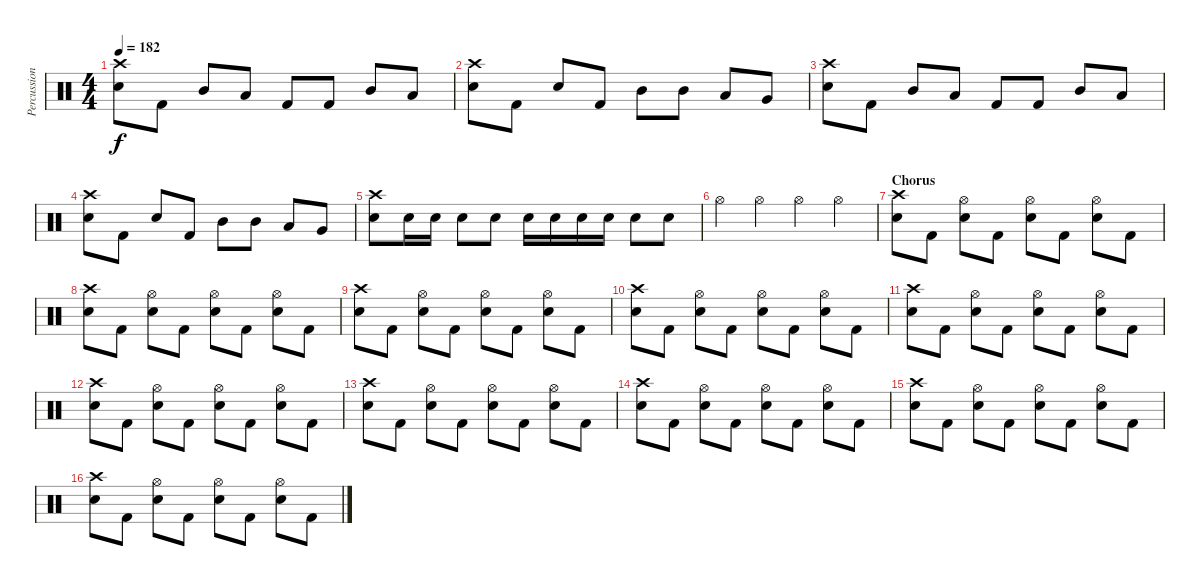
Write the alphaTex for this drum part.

\track ("Percussion" "Percussion") {instrument percussion}
\staff {score}
\articulation defaults
\ts (4 4)
\tempo 182
\clef neutral
\ks c
("Crash high (hit)" "Snare (hit) 2").8{dy f} "Kick (hit) 2".8 "Mid Tom (hit)".8 "Low Tom (hit)".8 "Kick (hit) 2".8 "Kick (hit) 2".8 "Mid Tom (hit)".8 "Low Tom (hit)".8 |
("Crash high (hit)" "Snare (hit) 2").8 "Kick (hit) 2".8 "Snare (hit) 2".8 "Kick (hit) 2".8 "Mid Tom (hit)".8 "Mid Tom (hit)".8 "Low Tom (hit)".8 "Very Low Tom (hit)".8 |
("Crash high (hit)" "Snare (hit) 2").8 "Kick (hit) 2".8 "Mid Tom (hit)".8 "Low Tom (hit)".8 "Kick (hit) 2".8 "Kick (hit) 2".8 "Mid Tom (hit)".8 "Low Tom (hit)".8 |
("Crash high (hit)" "Snare (hit) 2").8 "Kick (hit) 2".8 "Snare (hit) 2".8 "Kick (hit) 2".8 "Mid Tom (hit)".8 "Mid Tom (hit)".8 "Low Tom (hit)".8 "Very Low Tom (hit)".8 |
("Crash high (hit)" "Snare (hit) 2").8 "Snare (hit) 2".16 "Snare (hit) 2".16 "Snare (hit) 2".8 "Snare (hit) 2".8 "Snare (hit) 2".16 "Snare (hit) 2".16 "Snare (hit) 2".16 "Snare (hit) 2".16 "Snare (hit) 2".8 "Snare (hit) 2".8 |
"Hi-Hat (open)".4 "Hi-Hat (open)".4 "Hi-Hat (open)".4 "Hi-Hat (open)".4 |
\section ("" "Chorus")
("Crash high (hit)" "Snare (hit) 2").8 "Kick (hit) 2".8 ("Hi-Hat (open)" "Snare (hit) 2").8 "Kick (hit) 2".8 ("Hi-Hat (open)" "Snare (hit) 2").8 "Kick (hit) 2".8 ("Hi-Hat (open)" "Snare (hit) 2").8 "Kick (hit) 2".8 |
("Crash high (hit)" "Snare (hit) 2").8 "Kick (hit) 2".8 ("Hi-Hat (open)" "Snare (hit) 2").8 "Kick (hit) 2".8 ("Hi-Hat (open)" "Snare (hit) 2").8 "Kick (hit) 2".8 ("Hi-Hat (open)" "Snare (hit) 2").8 "Kick (hit) 2".8 |
("Crash high (hit)" "Snare (hit) 2").8 "Kick (hit) 2".8 ("Hi-Hat (open)" "Snare (hit) 2").8 "Kick (hit) 2".8 ("Hi-Hat (open)" "Snare (hit) 2").8 "Kick (hit) 2".8 ("Hi-Hat (open)" "Snare (hit) 2").8 "Kick (hit) 2".8 |
("Crash high (hit)" "Snare (hit) 2").8 "Kick (hit) 2".8 ("Hi-Hat (open)" "Snare (hit) 2").8 "Kick (hit) 2".8 ("Hi-Hat (open)" "Snare (hit) 2").8 "Kick (hit) 2".8 ("Hi-Hat (open)" "Snare (hit) 2").8 "Kick (hit) 2".8 |
("Crash high (hit)" "Snare (hit) 2").8 "Kick (hit) 2".8 ("Hi-Hat (open)" "Snare (hit) 2").8 "Kick (hit) 2".8 ("Hi-Hat (open)" "Snare (hit) 2").8 "Kick (hit) 2".8 ("Hi-Hat (open)" "Snare (hit) 2").8 "Kick (hit) 2".8 |
("Crash high (hit)" "Snare (hit) 2").8 "Kick (hit) 2".8 ("Hi-Hat (open)" "Snare (hit) 2").8 "Kick (hit) 2".8 ("Hi-Hat (open)" "Snare (hit) 2").8 "Kick (hit) 2".8 ("Hi-Hat (open)" "Snare (hit) 2").8 "Kick (hit) 2".8 |
("Crash high (hit)" "Snare (hit) 2").8 "Kick (hit) 2".8 ("Hi-Hat (open)" "Snare (hit) 2").8 "Kick (hit) 2".8 ("Hi-Hat (open)" "Snare (hit) 2").8 "Kick (hit) 2".8 ("Hi-Hat (open)" "Snare (hit) 2").8 "Kick (hit) 2".8 |
("Crash high (hit)" "Snare (hit) 2").8 "Kick (hit) 2".8 ("Hi-Hat (open)" "Snare (hit) 2").8 "Kick (hit) 2".8 ("Hi-Hat (open)" "Snare (hit) 2").8 "Kick (hit) 2".8 ("Hi-Hat (open)" "Snare (hit) 2").8 "Kick (hit) 2".8 |
("Crash high (hit)" "Snare (hit) 2").8 "Kick (hit) 2".8 ("Hi-Hat (open)" "Snare (hit) 2").8 "Kick (hit) 2".8 ("Hi-Hat (open)" "Snare (hit) 2").8 "Kick (hit) 2".8 ("Hi-Hat (open)" "Snare (hit) 2").8 "Kick (hit) 2".8 |
("Crash high (hit)" "Snare (hit) 2").8 "Kick (hit) 2".8 ("Hi-Hat (open)" "Snare (hit) 2").8 "Kick (hit) 2".8 ("Hi-Hat (open)" "Snare (hit) 2").8 "Kick (hit) 2".8 ("Hi-Hat (open)" "Snare (hit) 2").8 "Kick (hit) 2".8
